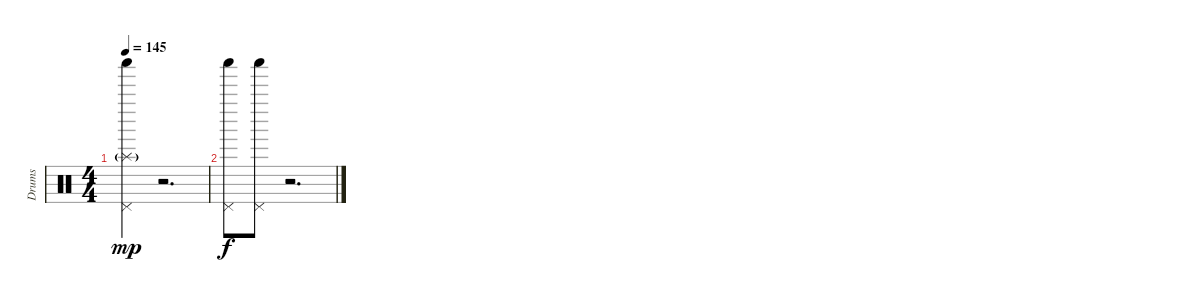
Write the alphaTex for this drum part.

\track ("Drums" "Drums") {instrument percussion}
\staff {score}
\articulation defaults
\ts (4 4)
\tempo 145
\clef neutral
\ks c
("Shaker (hit)" "Pedal Hi-Hat (hit)" "Splash (hit)"{g}).4{dy mp} r.2{d} |
("Shaker (hit)" "Pedal Hi-Hat (hit)").8{dy f} ("Shaker (hit)" "Pedal Hi-Hat (hit)").8 r.2{d}
